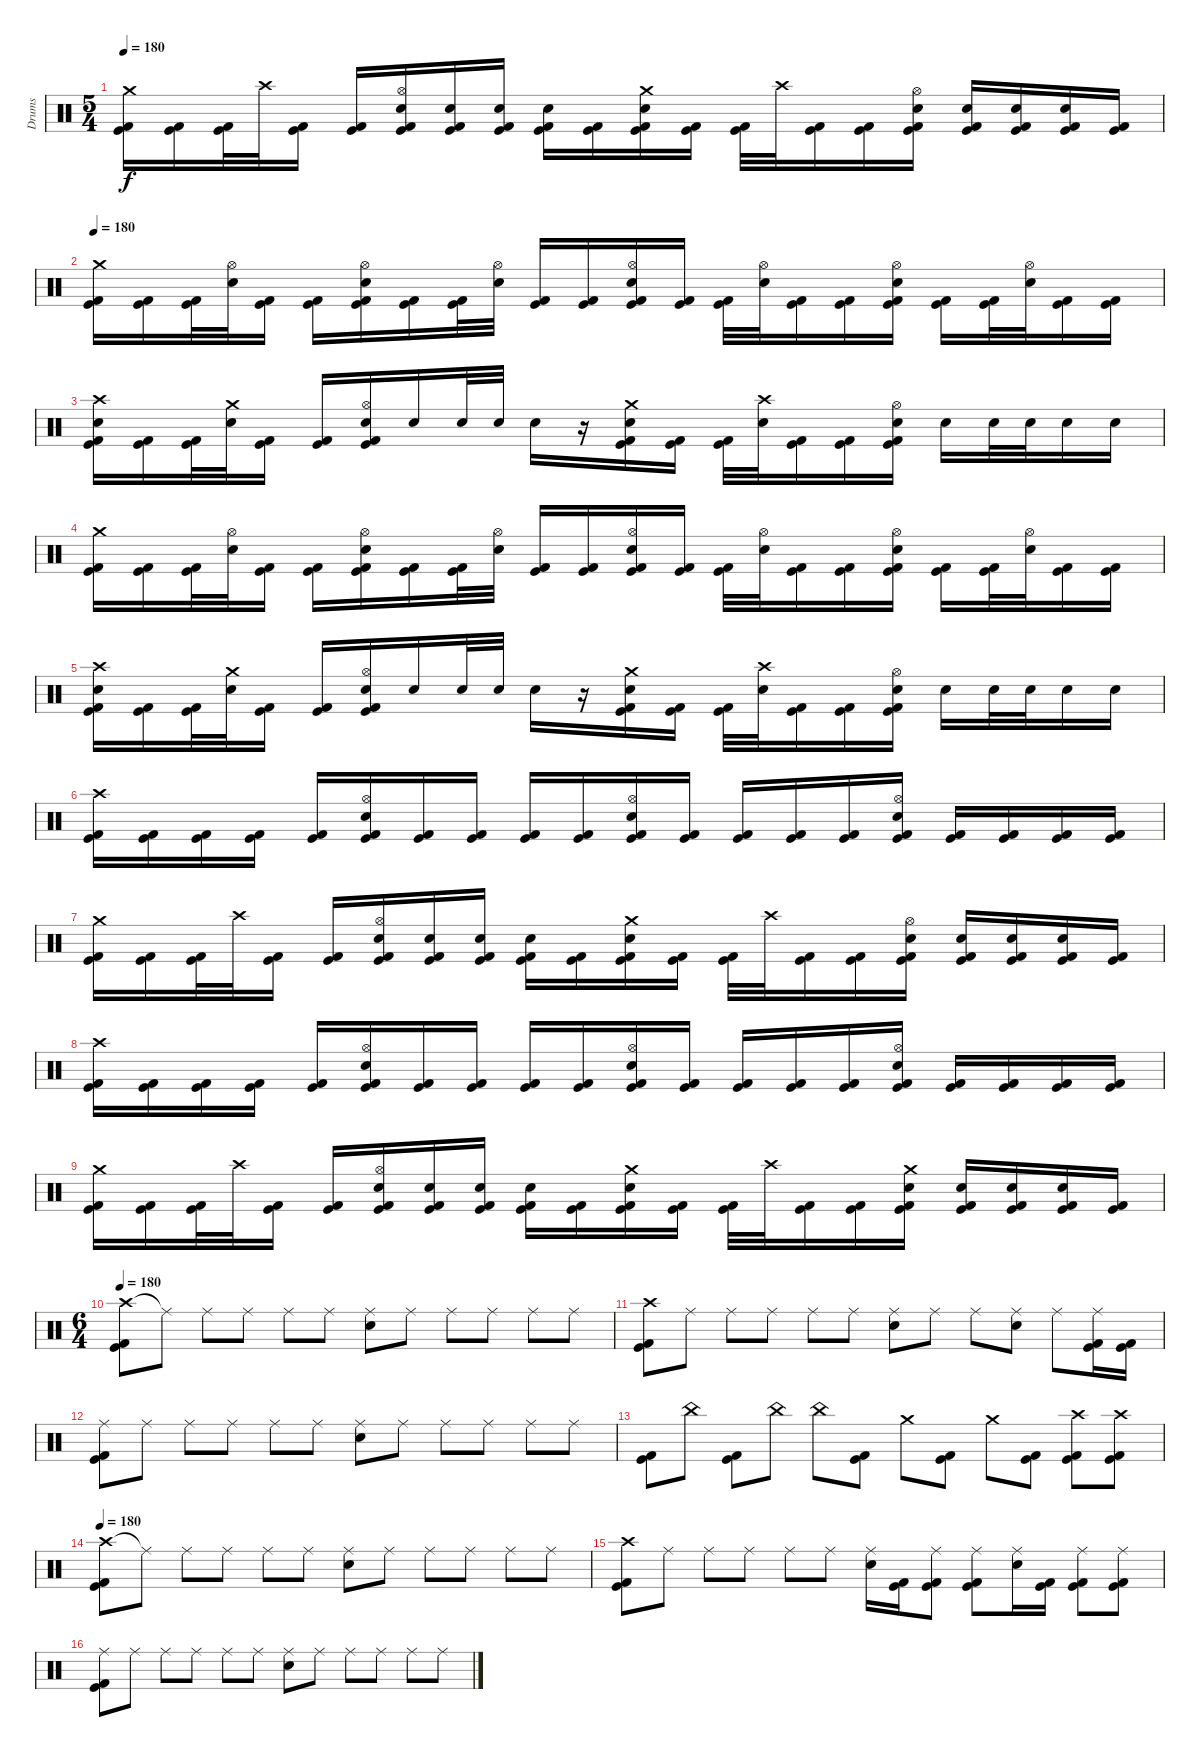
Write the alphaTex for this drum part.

\track ("Drums" "Drums") {instrument percussion}
\staff {score}
\articulation defaults
\ts (5 4)
\tempo 180
\clef neutral
\ks c
("Crash medium (hit)" "Kick (hit)" "Kick (hit) 2").16{dy f} ("Kick (hit)" "Kick (hit) 2").16 ("Kick (hit)" "Kick (hit) 2").32 "Crash high (hit)".32 ("Kick (hit)" "Kick (hit) 2").16 ("Kick (hit)" "Kick (hit) 2").16 ("Hi-Hat (open)" "Electric Snare (hit)" "Kick (hit)" "Kick (hit) 2").16 ("Electric Snare (hit)" "Kick (hit)" "Kick (hit) 2").16 ("Electric Snare (hit)" "Kick (hit)" "Kick (hit) 2").16 ("Electric Snare (hit)" "Kick (hit)" "Kick (hit) 2").16 ("Kick (hit)" "Kick (hit) 2").16 ("Crash medium (hit)" "Electric Snare (hit)" "Kick (hit)" "Kick (hit) 2").16 ("Kick (hit)" "Kick (hit) 2").16 ("Kick (hit)" "Kick (hit) 2").32 "Crash high (hit)".32 ("Kick (hit)" "Kick (hit) 2").16 ("Kick (hit)" "Kick (hit) 2").16 ("Hi-Hat (open)" "Electric Snare (hit)" "Kick (hit)" "Kick (hit) 2").16 ("Electric Snare (hit)" "Kick (hit)" "Kick (hit) 2").16 ("Electric Snare (hit)" "Kick (hit)" "Kick (hit) 2").16 ("Electric Snare (hit)" "Kick (hit)" "Kick (hit) 2").16 ("Kick (hit)" "Kick (hit) 2").16 |
\tempo 180
("Crash medium (hit)" "Kick (hit)" "Kick (hit) 2").16 ("Kick (hit)" "Kick (hit) 2").16 ("Kick (hit)" "Kick (hit) 2").32 ("Hi-Hat (open)" "Electric Snare (hit)").32 ("Kick (hit)" "Kick (hit) 2").16 ("Kick (hit)" "Kick (hit) 2").16 ("Hi-Hat (open)" "Electric Snare (hit)" "Kick (hit)" "Kick (hit) 2").16 ("Kick (hit)" "Kick (hit) 2").16 ("Kick (hit)" "Kick (hit) 2").32 ("Hi-Hat (open)" "Electric Snare (hit)").32 ("Kick (hit)" "Kick (hit) 2").16 ("Kick (hit)" "Kick (hit) 2").16 ("Hi-Hat (open)" "Electric Snare (hit)" "Kick (hit)" "Kick (hit) 2").16 ("Kick (hit)" "Kick (hit) 2").16 ("Kick (hit)" "Kick (hit) 2").32 ("Hi-Hat (open)" "Electric Snare (hit)").32 ("Kick (hit)" "Kick (hit) 2").16 ("Kick (hit)" "Kick (hit) 2").16 ("Hi-Hat (open)" "Electric Snare (hit)" "Kick (hit)" "Kick (hit) 2").16 ("Kick (hit)" "Kick (hit) 2").16 ("Kick (hit)" "Kick (hit) 2").32 ("Hi-Hat (open)" "Electric Snare (hit)").32 ("Kick (hit)" "Kick (hit) 2").16 ("Kick (hit)" "Kick (hit) 2").16 |
("Crash high (hit)" "Electric Snare (hit)" "Kick (hit)" "Kick (hit) 2").16 ("Kick (hit)" "Kick (hit) 2").16 ("Kick (hit)" "Kick (hit) 2").32 ("Crash medium (hit)" "Electric Snare (hit)").32 ("Kick (hit)" "Kick (hit) 2").16 ("Kick (hit)" "Kick (hit) 2").16 ("Hi-Hat (open)" "Electric Snare (hit)" "Kick (hit)" "Kick (hit) 2").16 "Electric Snare (hit)".16 "Electric Snare (hit)".32 "Electric Snare (hit)".32 "Electric Snare (hit)".16 r.16 ("Crash medium (hit)" "Electric Snare (hit)" "Kick (hit)" "Kick (hit) 2").16 ("Kick (hit)" "Kick (hit) 2").16 ("Kick (hit)" "Kick (hit) 2").32 ("Crash high (hit)" "Electric Snare (hit)").32 ("Kick (hit)" "Kick (hit) 2").16 ("Kick (hit)" "Kick (hit) 2").16 ("Hi-Hat (open)" "Electric Snare (hit)" "Kick (hit)" "Kick (hit) 2").16 "Electric Snare (hit)".16 "Electric Snare (hit)".32 "Electric Snare (hit)".32 "Electric Snare (hit)".16 "Electric Snare (hit)".16 |
("Crash medium (hit)" "Kick (hit)" "Kick (hit) 2").16 ("Kick (hit)" "Kick (hit) 2").16 ("Kick (hit)" "Kick (hit) 2").32 ("Hi-Hat (open)" "Electric Snare (hit)").32 ("Kick (hit)" "Kick (hit) 2").16 ("Kick (hit)" "Kick (hit) 2").16 ("Hi-Hat (open)" "Electric Snare (hit)" "Kick (hit)" "Kick (hit) 2").16 ("Kick (hit)" "Kick (hit) 2").16 ("Kick (hit)" "Kick (hit) 2").32 ("Hi-Hat (open)" "Electric Snare (hit)").32 ("Kick (hit)" "Kick (hit) 2").16 ("Kick (hit)" "Kick (hit) 2").16 ("Hi-Hat (open)" "Electric Snare (hit)" "Kick (hit)" "Kick (hit) 2").16 ("Kick (hit)" "Kick (hit) 2").16 ("Kick (hit)" "Kick (hit) 2").32 ("Hi-Hat (open)" "Electric Snare (hit)").32 ("Kick (hit)" "Kick (hit) 2").16 ("Kick (hit)" "Kick (hit) 2").16 ("Hi-Hat (open)" "Electric Snare (hit)" "Kick (hit)" "Kick (hit) 2").16 ("Kick (hit)" "Kick (hit) 2").16 ("Kick (hit)" "Kick (hit) 2").32 ("Hi-Hat (open)" "Electric Snare (hit)").32 ("Kick (hit)" "Kick (hit) 2").16 ("Kick (hit)" "Kick (hit) 2").16 |
("Crash high (hit)" "Electric Snare (hit)" "Kick (hit)" "Kick (hit) 2").16 ("Kick (hit)" "Kick (hit) 2").16 ("Kick (hit)" "Kick (hit) 2").32 ("Crash medium (hit)" "Electric Snare (hit)").32 ("Kick (hit)" "Kick (hit) 2").16 ("Kick (hit)" "Kick (hit) 2").16 ("Hi-Hat (open)" "Electric Snare (hit)" "Kick (hit)" "Kick (hit) 2").16 "Electric Snare (hit)".16 "Electric Snare (hit)".32 "Electric Snare (hit)".32 "Electric Snare (hit)".16 r.16 ("Crash medium (hit)" "Electric Snare (hit)" "Kick (hit)" "Kick (hit) 2").16 ("Kick (hit)" "Kick (hit) 2").16 ("Kick (hit)" "Kick (hit) 2").32 ("Crash high (hit)" "Electric Snare (hit)").32 ("Kick (hit)" "Kick (hit) 2").16 ("Kick (hit)" "Kick (hit) 2").16 ("Hi-Hat (open)" "Electric Snare (hit)" "Kick (hit)" "Kick (hit) 2").16 "Electric Snare (hit)".16 "Electric Snare (hit)".32 "Electric Snare (hit)".32 "Electric Snare (hit)".16 "Electric Snare (hit)".16 |
("Crash high (hit)" "Kick (hit)" "Kick (hit) 2").16 ("Kick (hit)" "Kick (hit) 2").16 ("Kick (hit)" "Kick (hit) 2").16 ("Kick (hit)" "Kick (hit) 2").16 ("Kick (hit)" "Kick (hit) 2").16 ("Hi-Hat (open)" "Electric Snare (hit)" "Kick (hit)" "Kick (hit) 2").16 ("Kick (hit)" "Kick (hit) 2").16 ("Kick (hit)" "Kick (hit) 2").16 ("Kick (hit)" "Kick (hit) 2").16 ("Kick (hit)" "Kick (hit) 2").16 ("Hi-Hat (open)" "Electric Snare (hit)" "Kick (hit)" "Kick (hit) 2").16 ("Kick (hit)" "Kick (hit) 2").16 ("Kick (hit)" "Kick (hit) 2").16 ("Kick (hit)" "Kick (hit) 2").16 ("Kick (hit)" "Kick (hit) 2").16 ("Hi-Hat (open)" "Electric Snare (hit)" "Kick (hit)" "Kick (hit) 2").16 ("Kick (hit)" "Kick (hit) 2").16 ("Kick (hit)" "Kick (hit) 2").16 ("Kick (hit)" "Kick (hit) 2").16 ("Kick (hit)" "Kick (hit) 2").16 |
("Crash medium (hit)" "Kick (hit)" "Kick (hit) 2").16 ("Kick (hit)" "Kick (hit) 2").16 ("Kick (hit)" "Kick (hit) 2").32 "Crash high (hit)".32 ("Kick (hit)" "Kick (hit) 2").16 ("Kick (hit)" "Kick (hit) 2").16 ("Hi-Hat (open)" "Electric Snare (hit)" "Kick (hit)" "Kick (hit) 2").16 ("Electric Snare (hit)" "Kick (hit)" "Kick (hit) 2").16 ("Electric Snare (hit)" "Kick (hit)" "Kick (hit) 2").16 ("Electric Snare (hit)" "Kick (hit)" "Kick (hit) 2").16 ("Kick (hit)" "Kick (hit) 2").16 ("Crash medium (hit)" "Electric Snare (hit)" "Kick (hit)" "Kick (hit) 2").16 ("Kick (hit)" "Kick (hit) 2").16 ("Kick (hit)" "Kick (hit) 2").32 "Crash high (hit)".32 ("Kick (hit)" "Kick (hit) 2").16 ("Kick (hit)" "Kick (hit) 2").16 ("Hi-Hat (open)" "Electric Snare (hit)" "Kick (hit)" "Kick (hit) 2").16 ("Electric Snare (hit)" "Kick (hit)" "Kick (hit) 2").16 ("Electric Snare (hit)" "Kick (hit)" "Kick (hit) 2").16 ("Electric Snare (hit)" "Kick (hit)" "Kick (hit) 2").16 ("Kick (hit)" "Kick (hit) 2").16 |
("Crash high (hit)" "Kick (hit)" "Kick (hit) 2").16 ("Kick (hit)" "Kick (hit) 2").16 ("Kick (hit)" "Kick (hit) 2").16 ("Kick (hit)" "Kick (hit) 2").16 ("Kick (hit)" "Kick (hit) 2").16 ("Hi-Hat (open)" "Electric Snare (hit)" "Kick (hit)" "Kick (hit) 2").16 ("Kick (hit)" "Kick (hit) 2").16 ("Kick (hit)" "Kick (hit) 2").16 ("Kick (hit)" "Kick (hit) 2").16 ("Kick (hit)" "Kick (hit) 2").16 ("Hi-Hat (open)" "Electric Snare (hit)" "Kick (hit)" "Kick (hit) 2").16 ("Kick (hit)" "Kick (hit) 2").16 ("Kick (hit)" "Kick (hit) 2").16 ("Kick (hit)" "Kick (hit) 2").16 ("Kick (hit)" "Kick (hit) 2").16 ("Hi-Hat (open)" "Electric Snare (hit)" "Kick (hit)" "Kick (hit) 2").16 ("Kick (hit)" "Kick (hit) 2").16 ("Kick (hit)" "Kick (hit) 2").16 ("Kick (hit)" "Kick (hit) 2").16 ("Kick (hit)" "Kick (hit) 2").16 |
("Crash medium (hit)" "Kick (hit)" "Kick (hit) 2").16 ("Kick (hit)" "Kick (hit) 2").16 ("Kick (hit)" "Kick (hit) 2").32 "Crash high (hit)".32 ("Kick (hit)" "Kick (hit) 2").16 ("Kick (hit)" "Kick (hit) 2").16 ("Hi-Hat (open)" "Electric Snare (hit)" "Kick (hit)" "Kick (hit) 2").16 ("Electric Snare (hit)" "Kick (hit)" "Kick (hit) 2").16 ("Electric Snare (hit)" "Kick (hit)" "Kick (hit) 2").16 ("Electric Snare (hit)" "Kick (hit)" "Kick (hit) 2").16 ("Kick (hit)" "Kick (hit) 2").16 ("Crash medium (hit)" "Electric Snare (hit)" "Kick (hit)" "Kick (hit) 2").16 ("Kick (hit)" "Kick (hit) 2").16 ("Kick (hit)" "Kick (hit) 2").32 "Crash high (hit)".32 ("Kick (hit)" "Kick (hit) 2").16 ("Kick (hit)" "Kick (hit) 2").16 ("Crash medium (hit)" "Electric Snare (hit)" "Kick (hit)" "Kick (hit) 2").16 ("Electric Snare (hit)" "Kick (hit)" "Kick (hit) 2").16 ("Electric Snare (hit)" "Kick (hit)" "Kick (hit) 2").16 ("Electric Snare (hit)" "Kick (hit)" "Kick (hit) 2").16 ("Kick (hit)" "Kick (hit) 2").16 |
\ts (6 4)
\tempo 180
("Crash high (hit)" "Kick (hit)" "Kick (hit) 2").8 "Ride (middle)"{t}.8 "Ride (middle)".8 "Ride (middle)".8 "Ride (middle)".8 "Ride (middle)".8 ("Ride (middle)" "Electric Snare (hit)").8 "Ride (middle)".8 "Ride (middle)".8 "Ride (middle)".8 "Ride (middle)".8 "Ride (middle)".8 |
("Crash high (hit)" "Kick (hit)" "Kick (hit) 2").8 "Ride (middle)".8 "Ride (middle)".8 "Ride (middle)".8 "Ride (middle)".8 "Ride (middle)".8 ("Ride (middle)" "Electric Snare (hit)").8 "Ride (middle)".8 "Ride (middle)".8 ("Ride (middle)" "Electric Snare (hit)").8 "Ride (middle)".8 ("Ride (middle)" "Kick (hit)" "Kick (hit) 2").16 ("Kick (hit)" "Kick (hit) 2").16 |
("Ride (middle)" "Kick (hit)" "Kick (hit) 2").8 "Ride (middle)".8 "Ride (middle)".8 "Ride (middle)".8 "Ride (middle)".8 "Ride (middle)".8 ("Ride (middle)" "Electric Snare (hit)").8 "Ride (middle)".8 "Ride (middle)".8 "Ride (middle)".8 "Ride (middle)".8 "Ride (middle)".8 |
("Kick (hit)" "Kick (hit) 2").8 "China (hit)".8 ("Kick (hit)" "Kick (hit) 2").8 "China (hit)".8 "China (hit)".8 ("Kick (hit)" "Kick (hit) 2").8 "Crash medium (hit)".8 ("Kick (hit)" "Kick (hit) 2").8 "Crash medium (hit)".8 ("Kick (hit)" "Kick (hit) 2").8 ("Crash high (hit)" "Kick (hit)" "Kick (hit) 2").8 ("Crash high (hit)" "Kick (hit)" "Kick (hit) 2").8 |
\tempo 180
("Crash high (hit)" "Kick (hit)" "Kick (hit) 2").8 "Ride (middle)"{t}.8 "Ride (middle)".8 "Ride (middle)".8 "Ride (middle)".8 "Ride (middle)".8 ("Ride (middle)" "Electric Snare (hit)").8 "Ride (middle)".8 "Ride (middle)".8 "Ride (middle)".8 "Ride (middle)".8 "Ride (middle)".8 |
("Crash high (hit)" "Kick (hit)" "Kick (hit) 2").8 "Ride (middle)".8 "Ride (middle)".8 "Ride (middle)".8 "Ride (middle)".8 "Ride (middle)".8 ("Ride (middle)" "Electric Snare (hit)").16 ("Kick (hit)" "Kick (hit) 2").16 ("Ride (middle)" "Kick (hit)" "Kick (hit) 2").8 ("Ride (middle)" "Kick (hit)" "Kick (hit) 2").8 ("Ride (middle)" "Electric Snare (hit)").16 ("Kick (hit)" "Kick (hit) 2").16 ("Ride (middle)" "Kick (hit)" "Kick (hit) 2").8 ("Ride (middle)" "Kick (hit)" "Kick (hit) 2").8 |
("Ride (middle)" "Kick (hit)" "Kick (hit) 2").8 "Ride (middle)".8 "Ride (middle)".8 "Ride (middle)".8 "Ride (middle)".8 "Ride (middle)".8 ("Ride (middle)" "Electric Snare (hit)").8 "Ride (middle)".8 "Ride (middle)".8 "Ride (middle)".8 "Ride (middle)".8 "Ride (middle)".8
